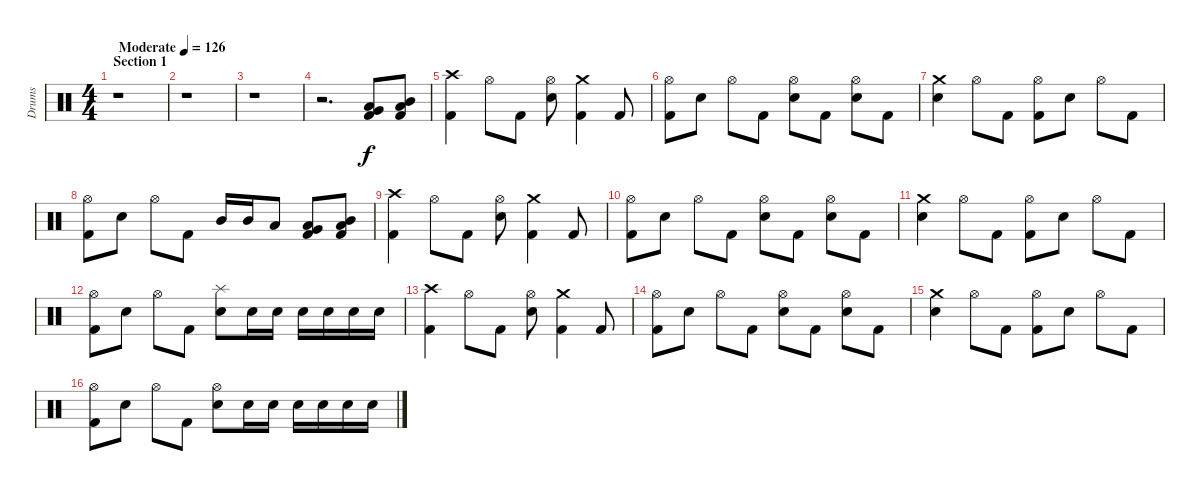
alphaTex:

\track ("Drums" "Drums") {instrument percussion}
\staff {score}
\articulation defaults
\ts (4 4)
\section ("" "Section 1")
\tempo (126 "Moderate")
\clef neutral
\ks c
r.1{dy f} |
r.1 |
r.1 |
r.2{d} ("Low Tom (hit)" "Very Low Tom (hit)" "Kick (hit) 2").8 ("Mid Tom (hit)" "Low Tom (hit)" "Kick (hit) 2").8 |
("Crash high (hit)" "Kick (hit) 2").4 "Hi-Hat (open)".8 "Kick (hit) 2".8 ("Hi-Hat (open)" "Electric Snare (hit)").8 ("Crash medium (hit)" "Kick (hit) 2").4 "Kick (hit) 2".8 |
("Hi-Hat (open)" "Kick (hit) 2").8 "Electric Snare (hit)".8 "Hi-Hat (open)".8 "Kick (hit) 2".8 ("Hi-Hat (open)" "Electric Snare (hit)").8 "Kick (hit) 2".8 ("Hi-Hat (open)" "Electric Snare (hit)").8 "Kick (hit) 2".8 |
("Crash medium (hit)" "Electric Snare (hit)").4 "Hi-Hat (open)".8 "Kick (hit) 2".8 ("Hi-Hat (open)" "Kick (hit) 2").8 "Electric Snare (hit)".8 "Hi-Hat (open)".8 "Kick (hit) 2".8 |
("Hi-Hat (open)" "Kick (hit) 2").8 "Electric Snare (hit)".8 "Hi-Hat (open)".8 "Kick (hit) 2".8 "Mid Tom (hit)".16 "Mid Tom (hit)".16 "Low Tom (hit)".8 ("Low Tom (hit)" "Very Low Tom (hit)" "Kick (hit) 2").8 ("Mid Tom (hit)" "Low Tom (hit)" "Kick (hit) 2").8 |
("Crash high (hit)" "Kick (hit) 2").4 "Hi-Hat (open)".8 "Kick (hit) 2".8 ("Hi-Hat (open)" "Electric Snare (hit)").8 ("Crash medium (hit)" "Kick (hit) 2").4 "Kick (hit) 2".8 |
("Hi-Hat (open)" "Kick (hit) 2").8 "Electric Snare (hit)".8 "Hi-Hat (open)".8 "Kick (hit) 2".8 ("Hi-Hat (open)" "Electric Snare (hit)").8 "Kick (hit) 2".8 ("Hi-Hat (open)" "Electric Snare (hit)").8 "Kick (hit) 2".8 |
("Crash medium (hit)" "Electric Snare (hit)").4 "Hi-Hat (open)".8 "Kick (hit) 2".8 ("Hi-Hat (open)" "Kick (hit) 2").8 "Electric Snare (hit)".8 "Hi-Hat (open)".8 "Kick (hit) 2".8 |
("Hi-Hat (open)" "Kick (hit) 2").8 "Electric Snare (hit)".8 "Hi-Hat (open)".8 "Kick (hit) 2".8 ("Splash (hit)" "Electric Snare (hit)").8 "Electric Snare (hit)".16 "Electric Snare (hit)".16 "Electric Snare (hit)".16 "Electric Snare (hit)".16 "Electric Snare (hit)".16 "Electric Snare (hit)".16 |
("Crash high (hit)" "Kick (hit) 2").4 "Hi-Hat (open)".8 "Kick (hit) 2".8 ("Hi-Hat (open)" "Electric Snare (hit)").8 ("Crash medium (hit)" "Kick (hit) 2").4 "Kick (hit) 2".8 |
("Hi-Hat (open)" "Kick (hit) 2").8 "Electric Snare (hit)".8 "Hi-Hat (open)".8 "Kick (hit) 2".8 ("Hi-Hat (open)" "Electric Snare (hit)").8 "Kick (hit) 2".8 ("Hi-Hat (open)" "Electric Snare (hit)").8 "Kick (hit) 2".8 |
("Crash medium (hit)" "Electric Snare (hit)").4 "Hi-Hat (open)".8 "Kick (hit) 2".8 ("Hi-Hat (open)" "Kick (hit) 2").8 "Electric Snare (hit)".8 "Hi-Hat (open)".8 "Kick (hit) 2".8 |
("Hi-Hat (open)" "Kick (hit) 2").8 "Electric Snare (hit)".8 "Hi-Hat (open)".8 "Kick (hit) 2".8 ("Hi-Hat (open)" "Electric Snare (hit)").8 "Electric Snare (hit)".16 "Electric Snare (hit)".16 "Electric Snare (hit)".16 "Electric Snare (hit)".16 "Electric Snare (hit)".16 "Electric Snare (hit)".16
